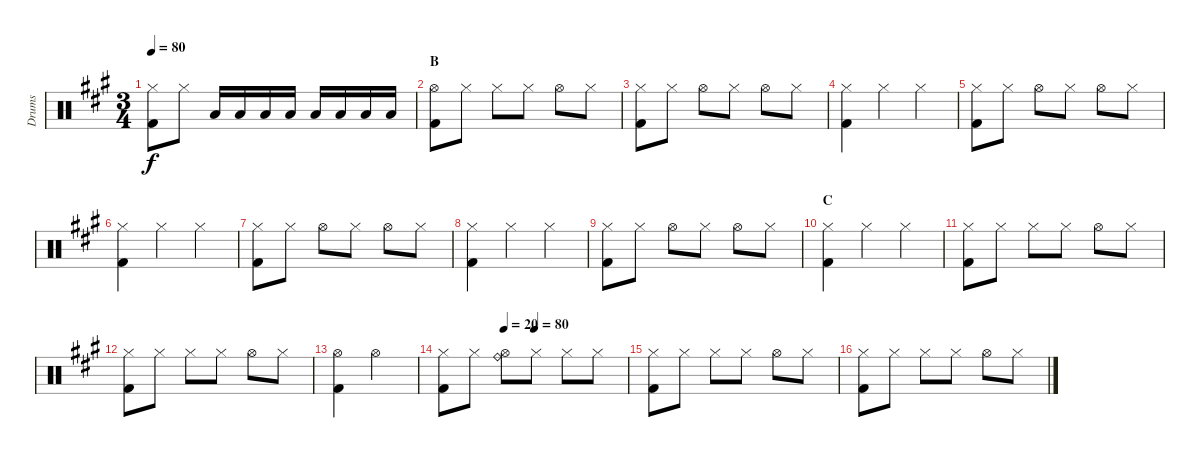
\track ("Drums" "Drums") {instrument percussion}
\staff {score}
\articulation defaults
\ts (3 4)
\tempo 80
\clef neutral
\ks a
("Hi-Hat (closed)" "Kick (hit) 2").8{dy f} "Hi-Hat (closed)".8 "Low Tom (hit)".16 "Low Tom (hit)".16 "Low Tom (hit)".16 "Low Tom (hit)".16 "Low Floor Tom (hit)".16 "Low Floor Tom (hit)".16 "Low Floor Tom (hit)".16 "Low Floor Tom (hit)".16 |
\section ("" "B")
("Hi-Hat (open)" "Kick (hit) 2").8 "Hi-Hat (closed)".8 "Hi-Hat (closed)".8 "Hi-Hat (closed)".8 "Hi-Hat (open)".8 "Hi-Hat (closed)".8 |
("Hi-Hat (closed)" "Kick (hit) 2").8 "Hi-Hat (closed)".8 "Hi-Hat (open)".8 "Hi-Hat (closed)".8 "Hi-Hat (open)".8 "Hi-Hat (closed)".8 |
("Hi-Hat (closed)" "Kick (hit) 2").4 "Hi-Hat (closed)".4 "Hi-Hat (closed)".4 |
("Hi-Hat (closed)" "Kick (hit) 2").8 "Hi-Hat (closed)".8 "Hi-Hat (open)".8 "Hi-Hat (closed)".8 "Hi-Hat (open)".8 "Hi-Hat (closed)".8 |
("Hi-Hat (closed)" "Kick (hit) 2").4 "Hi-Hat (closed)".4 "Hi-Hat (closed)".4 |
("Hi-Hat (closed)" "Kick (hit) 2").8 "Hi-Hat (closed)".8 "Hi-Hat (open)".8 "Hi-Hat (closed)".8 "Hi-Hat (open)".8 "Hi-Hat (closed)".8 |
("Hi-Hat (closed)" "Kick (hit) 2").4 "Hi-Hat (closed)".4 "Hi-Hat (closed)".4 |
("Hi-Hat (closed)" "Kick (hit) 2").8 "Hi-Hat (closed)".8 "Hi-Hat (open)".8 "Hi-Hat (closed)".8 "Hi-Hat (open)".8 "Hi-Hat (closed)".8 |
\section ("" "C")
("Hi-Hat (closed)" "Kick (hit) 2").4 "Hi-Hat (closed)".4 "Hi-Hat (closed)".4 |
("Hi-Hat (closed)" "Kick (hit) 2").8 "Hi-Hat (closed)".8 "Hi-Hat (closed)".8 "Hi-Hat (closed)".8 "Hi-Hat (open)".8 "Hi-Hat (closed)".8 |
("Hi-Hat (closed)" "Kick (hit) 2").8 "Hi-Hat (closed)".8 "Hi-Hat (closed)".8 "Hi-Hat (closed)".8 "Hi-Hat (open)".8 "Hi-Hat (closed)".8 |
("Hi-Hat (open)" "Kick (hit) 2").4 "Hi-Hat (open)".2 |
\tempo (20 0.3333333333333333)
\tempo (80 0.5)
("Hi-Hat (closed)" "Kick (hit) 2").8 "Hi-Hat (closed)".8 ("Hi-Hat (open)" "Ride (bell)").8 "Hi-Hat (closed)".8 "Hi-Hat (closed)".8 "Hi-Hat (closed)".8 |
("Hi-Hat (closed)" "Kick (hit) 2").8 "Hi-Hat (closed)".8 "Hi-Hat (closed)".8 "Hi-Hat (closed)".8 "Hi-Hat (open)".8 "Hi-Hat (closed)".8 |
("Hi-Hat (closed)" "Kick (hit) 2").8 "Hi-Hat (closed)".8 "Hi-Hat (closed)".8 "Hi-Hat (closed)".8 "Hi-Hat (open)".8 "Hi-Hat (closed)".8
